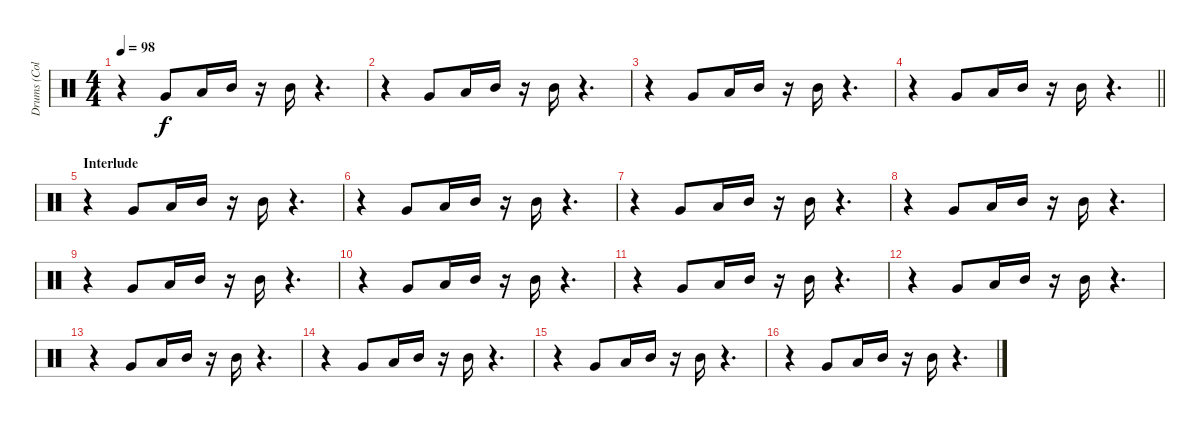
\track ("Drums (Collins)" "Drums (Col") {instrument percussion}
\staff {score}
\articulation defaults
\ts (4 4)
\tempo 98
\clef neutral
\ks c
r.4{dy f} "Very Low Tom (hit)".8 "Low Tom (hit)".16 "Mid Tom (hit)".16 r.16 "Mid Tom (hit)".16 r.4{d} |
r.4 "Very Low Tom (hit)".8 "Low Tom (hit)".16 "Mid Tom (hit)".16 r.16 "Mid Tom (hit)".16 r.4{d} |
r.4 "Very Low Tom (hit)".8 "Low Tom (hit)".16 "Mid Tom (hit)".16 r.16 "Mid Tom (hit)".16 r.4{d} |
\barLineRight lightlight
r.4 "Very Low Tom (hit)".8 "Low Tom (hit)".16 "Mid Tom (hit)".16 r.16 "Mid Tom (hit)".16 r.4{d} |
\section ("" "Interlude")
r.4 "Very Low Tom (hit)".8 "Low Tom (hit)".16 "Mid Tom (hit)".16 r.16 "Mid Tom (hit)".16 r.4{d} |
r.4 "Very Low Tom (hit)".8 "Low Tom (hit)".16 "Mid Tom (hit)".16 r.16 "Mid Tom (hit)".16 r.4{d} |
r.4 "Very Low Tom (hit)".8 "Low Tom (hit)".16 "Mid Tom (hit)".16 r.16 "Mid Tom (hit)".16 r.4{d} |
r.4 "Very Low Tom (hit)".8 "Low Tom (hit)".16 "Mid Tom (hit)".16 r.16 "Mid Tom (hit)".16 r.4{d} |
r.4 "Very Low Tom (hit)".8 "Low Tom (hit)".16 "Mid Tom (hit)".16 r.16 "Mid Tom (hit)".16 r.4{d} |
r.4 "Very Low Tom (hit)".8 "Low Tom (hit)".16 "Mid Tom (hit)".16 r.16 "Mid Tom (hit)".16 r.4{d} |
r.4 "Very Low Tom (hit)".8 "Low Tom (hit)".16 "Mid Tom (hit)".16 r.16 "Mid Tom (hit)".16 r.4{d} |
r.4 "Very Low Tom (hit)".8 "Low Tom (hit)".16 "Mid Tom (hit)".16 r.16 "Mid Tom (hit)".16 r.4{d} |
r.4 "Very Low Tom (hit)".8 "Low Tom (hit)".16 "Mid Tom (hit)".16 r.16 "Mid Tom (hit)".16 r.4{d} |
r.4 "Very Low Tom (hit)".8 "Low Tom (hit)".16 "Mid Tom (hit)".16 r.16 "Mid Tom (hit)".16 r.4{d} |
r.4 "Very Low Tom (hit)".8 "Low Tom (hit)".16 "Mid Tom (hit)".16 r.16 "Mid Tom (hit)".16 r.4{d} |
r.4 "Very Low Tom (hit)".8 "Low Tom (hit)".16 "Mid Tom (hit)".16 r.16 "Mid Tom (hit)".16 r.4{d}
